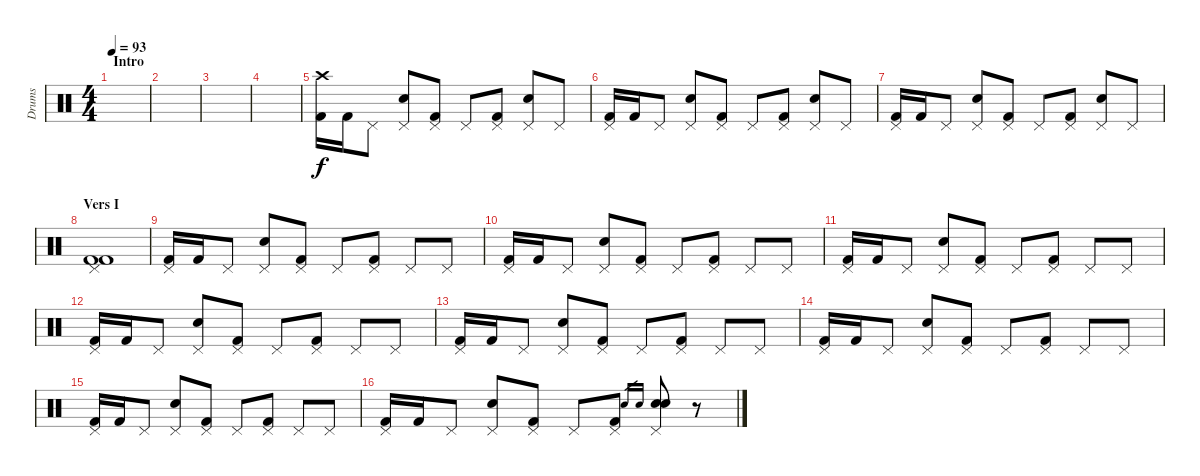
\track ("Drums" "Drums") {instrument percussion}
\staff {score}
\articulation defaults
\ts (4 4)
\section ("" "Intro")
\tempo 93
\clef neutral
\ks c
|
|
|
|
("Crash high (hit)" "Kick (hit) 2").16 "Kick (hit) 2".16{dy f} "Pedal Hi-Hat (hit)".8 ("Pedal Hi-Hat (hit)" "Electric Snare (hit)").8 ("Pedal Hi-Hat (hit)" "Kick (hit) 2").8 "Pedal Hi-Hat (hit)".8 ("Pedal Hi-Hat (hit)" "Kick (hit) 2").8 ("Pedal Hi-Hat (hit)" "Electric Snare (hit)").8 "Pedal Hi-Hat (hit)".8 |
("Pedal Hi-Hat (hit)" "Kick (hit) 2").16 "Kick (hit) 2".16 "Pedal Hi-Hat (hit)".8 ("Pedal Hi-Hat (hit)" "Electric Snare (hit)").8 ("Pedal Hi-Hat (hit)" "Kick (hit) 2").8 "Pedal Hi-Hat (hit)".8 ("Pedal Hi-Hat (hit)" "Kick (hit) 2").8 ("Pedal Hi-Hat (hit)" "Electric Snare (hit)").8 "Pedal Hi-Hat (hit)".8 |
("Pedal Hi-Hat (hit)" "Kick (hit) 2").16 "Kick (hit) 2".16 "Pedal Hi-Hat (hit)".8 ("Pedal Hi-Hat (hit)" "Electric Snare (hit)").8 ("Pedal Hi-Hat (hit)" "Kick (hit) 2").8 "Pedal Hi-Hat (hit)".8 ("Pedal Hi-Hat (hit)" "Kick (hit) 2").8 ("Pedal Hi-Hat (hit)" "Electric Snare (hit)").8 "Pedal Hi-Hat (hit)".8 |
\section ("" "Vers I")
("Pedal Hi-Hat (hit)" "Kick (hit) 2" "Kick (hit) 2").1 |
("Pedal Hi-Hat (hit)" "Kick (hit) 2").16 "Kick (hit) 2".16 "Pedal Hi-Hat (hit)".8 ("Pedal Hi-Hat (hit)" "Electric Snare (hit)").8 ("Pedal Hi-Hat (hit)" "Kick (hit) 2").8 "Pedal Hi-Hat (hit)".8 ("Pedal Hi-Hat (hit)" "Kick (hit) 2").8 "Pedal Hi-Hat (hit)".8 "Pedal Hi-Hat (hit)".8 |
("Pedal Hi-Hat (hit)" "Kick (hit) 2").16 "Kick (hit) 2".16 "Pedal Hi-Hat (hit)".8 ("Pedal Hi-Hat (hit)" "Electric Snare (hit)").8 ("Pedal Hi-Hat (hit)" "Kick (hit) 2").8 "Pedal Hi-Hat (hit)".8 ("Pedal Hi-Hat (hit)" "Kick (hit) 2").8 "Pedal Hi-Hat (hit)".8 "Pedal Hi-Hat (hit)".8 |
("Pedal Hi-Hat (hit)" "Kick (hit) 2").16 "Kick (hit) 2".16 "Pedal Hi-Hat (hit)".8 ("Pedal Hi-Hat (hit)" "Electric Snare (hit)").8 ("Pedal Hi-Hat (hit)" "Kick (hit) 2").8 "Pedal Hi-Hat (hit)".8 ("Pedal Hi-Hat (hit)" "Kick (hit) 2").8 "Pedal Hi-Hat (hit)".8 "Pedal Hi-Hat (hit)".8 |
("Pedal Hi-Hat (hit)" "Kick (hit) 2").16 "Kick (hit) 2".16 "Pedal Hi-Hat (hit)".8 ("Pedal Hi-Hat (hit)" "Electric Snare (hit)").8 ("Pedal Hi-Hat (hit)" "Kick (hit) 2").8 "Pedal Hi-Hat (hit)".8 ("Pedal Hi-Hat (hit)" "Kick (hit) 2").8 "Pedal Hi-Hat (hit)".8 "Pedal Hi-Hat (hit)".8 |
("Pedal Hi-Hat (hit)" "Kick (hit) 2").16 "Kick (hit) 2".16 "Pedal Hi-Hat (hit)".8 ("Pedal Hi-Hat (hit)" "Electric Snare (hit)").8 ("Pedal Hi-Hat (hit)" "Kick (hit) 2").8 "Pedal Hi-Hat (hit)".8 ("Pedal Hi-Hat (hit)" "Kick (hit) 2").8 "Pedal Hi-Hat (hit)".8 "Pedal Hi-Hat (hit)".8 |
("Pedal Hi-Hat (hit)" "Kick (hit) 2").16 "Kick (hit) 2".16 "Pedal Hi-Hat (hit)".8 ("Pedal Hi-Hat (hit)" "Electric Snare (hit)").8 ("Pedal Hi-Hat (hit)" "Kick (hit) 2").8 "Pedal Hi-Hat (hit)".8 ("Pedal Hi-Hat (hit)" "Kick (hit) 2").8 "Pedal Hi-Hat (hit)".8 "Pedal Hi-Hat (hit)".8 |
("Pedal Hi-Hat (hit)" "Kick (hit) 2").16 "Kick (hit) 2".16 "Pedal Hi-Hat (hit)".8 ("Pedal Hi-Hat (hit)" "Electric Snare (hit)").8 ("Pedal Hi-Hat (hit)" "Kick (hit) 2").8 "Pedal Hi-Hat (hit)".8 ("Pedal Hi-Hat (hit)" "Kick (hit) 2").8 "Pedal Hi-Hat (hit)".8 "Pedal Hi-Hat (hit)".8 |
("Pedal Hi-Hat (hit)" "Kick (hit) 2").16 "Kick (hit) 2".16 "Pedal Hi-Hat (hit)".8 ("Pedal Hi-Hat (hit)" "Electric Snare (hit)").8 ("Pedal Hi-Hat (hit)" "Kick (hit) 2").8 "Pedal Hi-Hat (hit)".8 ("Pedal Hi-Hat (hit)" "Kick (hit) 2").8 "Electric Snare (hit)".16{gr} "Electric Snare (hit)".16{gr} ("Pedal Hi-Hat (hit)" "Electric Snare (hit)" "Electric Snare (hit)").8 r.8
